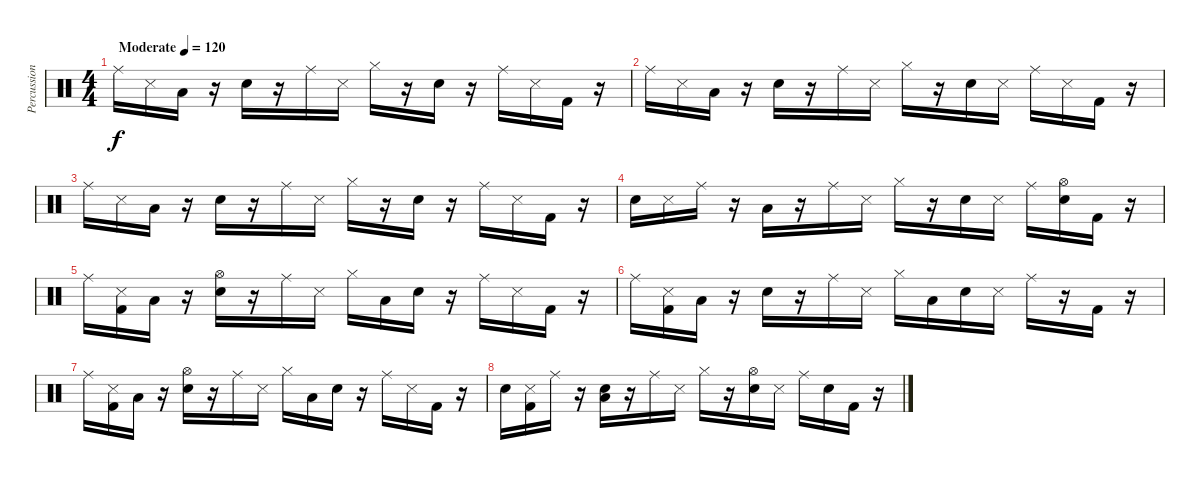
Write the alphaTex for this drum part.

\track ("Percussion" "Percussion") {instrument percussion}
\staff {score}
\articulation defaults
\ts (4 4)
\tempo (120 "Moderate")
\clef neutral
\ks c "Ride (middle)".16{dy f} "Snare (side stick) 3".16 "Low Tom (hit)".16
r.16 "Electric Snare (hit)".16 r.16 "Ride (middle)".16 "Snare (side stick) 3".16 "Hi-Hat (closed)".16 r.16 "Electric Snare (hit)".16 r.16 "Ride (middle)".16 "Snare (side stick) 3".16 "Kick (hit) 2".16 r.16 |
"Ride (middle)".16 "Snare (side stick) 3".16 "Low Tom (hit)".16 r.16 "Electric Snare (hit)".16 r.16 "Ride (middle)".16 "Snare (side stick) 3".16 "Hi-Hat (closed)".16 r.16 "Electric Snare (hit)".16 "Snare (side stick) 3".16 "Ride (middle)".16 "Snare (side stick) 3".16 "Kick (hit) 2".16 r.16 |
"Ride (middle)".16 "Snare (side stick) 3".16 "Low Tom (hit)".16 r.16 "Electric Snare (hit)".16 r.16 "Ride (middle)".16 "Snare (side stick) 3".16 "Hi-Hat (closed)".16 r.16 "Electric Snare (hit)".16 r.16 "Ride (middle)".16 "Snare (side stick) 3".16 "Kick (hit) 2".16 r.16 |
"Electric Snare (hit)".16 "Snare (side stick) 3".16 "Ride (middle)".16 r.16 "Low Tom (hit)".16 r.16 "Ride (middle)".16 "Snare (side stick) 3".16 "Hi-Hat (closed)".16 r.16 "Electric Snare (hit)".16 "Snare (side stick) 3".16 "Ride (middle)".16 ("Electric Snare (hit)" "Hi-Hat (open)").16 "Kick (hit) 2".16 r.16 |
"Ride (middle)".16 ("Kick (hit) 2" "Snare (side stick) 3").16 "Low Tom (hit)".16 r.16 ("Electric Snare (hit)" "Hi-Hat (open)").16 r.16 "Ride (middle)".16 "Snare (side stick) 3".16 "Hi-Hat (closed)".16 "Low Tom (hit)".16 "Electric Snare (hit)".16 r.16 "Ride (middle)".16 "Snare (side stick) 3".16 "Kick (hit) 2".16 r.16 |
"Ride (middle)".16 ("Kick (hit) 2" "Snare (side stick) 3").16 "Low Tom (hit)".16 r.16 "Electric Snare (hit)".16 r.16 "Ride (middle)".16 "Snare (side stick) 3".16 "Hi-Hat (closed)".16 "Low Tom (hit)".16 "Electric Snare (hit)".16 "Snare (side stick) 3".16 "Ride (middle)".16 r.16 "Kick (hit) 2".16 r.16 |
"Ride (middle)".16 ("Kick (hit) 2" "Snare (side stick) 3").16 "Low Tom (hit)".16 r.16 ("Electric Snare (hit)" "Hi-Hat (open)").16 r.16 "Ride (middle)".16 "Snare (side stick) 3".16 "Hi-Hat (closed)".16 "Low Tom (hit)".16 "Electric Snare (hit)".16 r.16 "Ride (middle)".16 "Snare (side stick) 3".16 "Kick (hit) 2".16 r.16 |
"Electric Snare (hit)".16 ("Kick (hit) 2" "Snare (side stick) 3").16 "Ride (middle)".16 r.16 ("Low Tom (hit)" "Electric Snare (hit)").16 r.16 "Ride (middle)".16 "Snare (side stick) 3".16 "Hi-Hat (closed)".16 r.16 ("Electric Snare (hit)" "Hi-Hat (open)").16 "Snare (side stick) 3".16 "Ride (middle)".16 "Electric Snare (hit)".16 "Kick (hit) 2".16 r.16
